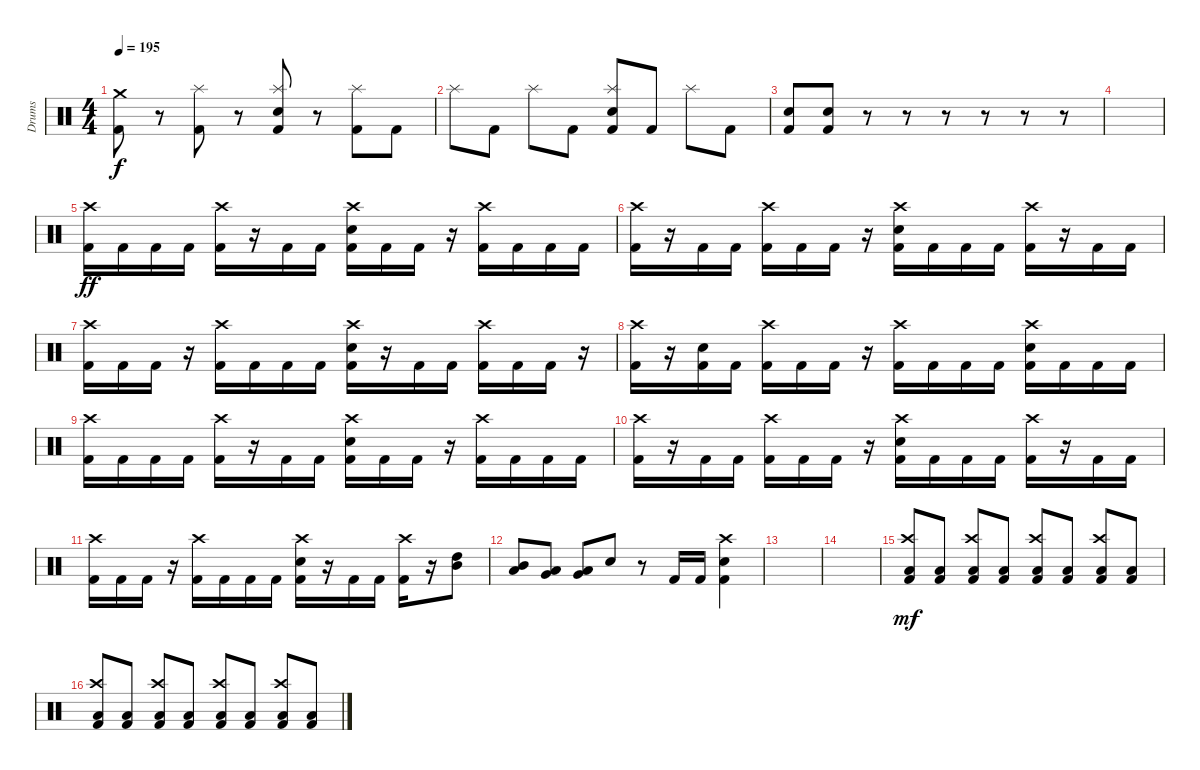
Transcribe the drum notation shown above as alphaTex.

\track ("Drums" "Drums") {instrument percussion}
\staff {score}
\articulation defaults
\ts (4 4)
\tempo 195
\clef neutral
\ks c
("Crash medium (hit)" "Kick (hit) 2").8{dy f} r.8 ("Splash (hit)" "Kick (hit) 2").8 r.8 ("Splash (hit)" "Electric Snare (hit)" "Kick (hit) 2").8 r.8 ("Splash (hit)" "Kick (hit) 2").8 "Kick (hit) 2".8 |
"Splash (hit)".8 "Kick (hit) 2".8 "Splash (hit)".8 "Kick (hit) 2".8 ("Splash (hit)" "Electric Snare (hit)" "Kick (hit) 2").8 "Kick (hit) 2".8 "Splash (hit)".8 "Kick (hit) 2".8 |
("Electric Snare (hit)" "Kick (hit) 2").8 ("Electric Snare (hit)" "Kick (hit) 2").8 r.8 r.8 r.8 r.8 r.8 r.8 |
|
("Crash high (hit)" "Kick (hit) 2").16{dy ff} "Kick (hit) 2".16 "Kick (hit) 2".16 "Kick (hit) 2".16 ("Crash high (hit)" "Kick (hit) 2").16 r.16 "Kick (hit) 2".16 "Kick (hit) 2".16 ("Crash high (hit)" "Electric Snare (hit)" "Kick (hit) 2").16 "Kick (hit) 2".16 "Kick (hit) 2".16 r.16 ("Crash high (hit)" "Kick (hit) 2").16 "Kick (hit) 2".16 "Kick (hit) 2".16 "Kick (hit) 2".16 |
("Crash high (hit)" "Kick (hit) 2").16 r.16 "Kick (hit) 2".16 "Kick (hit) 2".16 ("Crash high (hit)" "Kick (hit) 2").16 "Kick (hit) 2".16 "Kick (hit) 2".16 r.16 ("Crash high (hit)" "Electric Snare (hit)" "Kick (hit) 2").16 "Kick (hit) 2".16 "Kick (hit) 2".16 "Kick (hit) 2".16 ("Crash high (hit)" "Kick (hit) 2").16 r.16 "Kick (hit) 2".16 "Kick (hit) 2".16 |
("Crash high (hit)" "Kick (hit) 2").16 "Kick (hit) 2".16 "Kick (hit) 2".16 r.16 ("Crash high (hit)" "Kick (hit) 2").16 "Kick (hit) 2".16 "Kick (hit) 2".16 "Kick (hit) 2".16 ("Crash high (hit)" "Electric Snare (hit)" "Kick (hit) 2").16 r.16 "Kick (hit) 2".16 "Kick (hit) 2".16 ("Crash high (hit)" "Kick (hit) 2").16 "Kick (hit) 2".16 "Kick (hit) 2".16 r.16 |
("Crash high (hit)" "Kick (hit) 2").16 r.16 ("Electric Snare (hit)" "Kick (hit) 2").16 "Kick (hit) 2".16 ("Crash high (hit)" "Kick (hit) 2").16 "Kick (hit) 2".16 "Kick (hit) 2".16 r.16 ("Crash high (hit)" "Kick (hit) 2").16 "Kick (hit) 2".16 "Kick (hit) 2".16 "Kick (hit) 2".16 ("Crash high (hit)" "Electric Snare (hit)" "Kick (hit) 2").16 "Kick (hit) 2".16 "Kick (hit) 2".16 "Kick (hit) 2".16 |
("Crash high (hit)" "Kick (hit) 2").16 "Kick (hit) 2".16 "Kick (hit) 2".16 "Kick (hit) 2".16 ("Crash high (hit)" "Kick (hit) 2").16 r.16 "Kick (hit) 2".16 "Kick (hit) 2".16 ("Crash high (hit)" "Electric Snare (hit)" "Kick (hit) 2").16 "Kick (hit) 2".16 "Kick (hit) 2".16 r.16 ("Crash high (hit)" "Kick (hit) 2").16 "Kick (hit) 2".16 "Kick (hit) 2".16 "Kick (hit) 2".16 |
("Crash high (hit)" "Kick (hit) 2").16 r.16 "Kick (hit) 2".16 "Kick (hit) 2".16 ("Crash high (hit)" "Kick (hit) 2").16 "Kick (hit) 2".16 "Kick (hit) 2".16 r.16 ("Crash high (hit)" "Electric Snare (hit)" "Kick (hit) 2").16 "Kick (hit) 2".16 "Kick (hit) 2".16 "Kick (hit) 2".16 ("Crash high (hit)" "Kick (hit) 2").16 r.16 "Kick (hit) 2".16 "Kick (hit) 2".16 |
("Crash high (hit)" "Kick (hit) 2").16 "Kick (hit) 2".16 "Kick (hit) 2".16 r.16 ("Crash high (hit)" "Kick (hit) 2").16 "Kick (hit) 2".16 "Kick (hit) 2".16 "Kick (hit) 2".16 ("Crash high (hit)" "Electric Snare (hit)" "Kick (hit) 2").16 r.16 "Kick (hit) 2".16 "Kick (hit) 2".16 ("Crash high (hit)" "Kick (hit) 2").16 r.16 ("High Tom (hit)" "Mid Tom (hit)").8 |
("Mid Tom (hit)" "Low Tom (hit)").8 ("Low Tom (hit)" "Very Low Tom (hit)").8 ("Very Low Tom (hit)" "Low Floor Tom (hit)").8 "Electric Snare (hit)".8 r.8 "Kick (hit) 2".16 "Kick (hit) 2".16 ("Crash high (hit)" "Electric Snare (hit)" "Kick (hit) 2").4 |
|
|
("Crash high (hit)" "Low Floor Tom (hit)" "Kick (hit) 2").8{dy mf} ("Low Floor Tom (hit)" "Kick (hit) 2").8 ("Crash high (hit)" "Low Floor Tom (hit)" "Kick (hit) 2").8 ("Low Floor Tom (hit)" "Kick (hit) 2").8 ("Crash high (hit)" "Low Floor Tom (hit)" "Kick (hit) 2").8 ("Low Floor Tom (hit)" "Kick (hit) 2").8 ("Crash high (hit)" "Low Floor Tom (hit)" "Kick (hit) 2").8 ("Low Floor Tom (hit)" "Kick (hit) 2").8 |
("Crash high (hit)" "Low Floor Tom (hit)" "Kick (hit) 2").8 ("Low Floor Tom (hit)" "Kick (hit) 2").8 ("Crash high (hit)" "Low Floor Tom (hit)" "Kick (hit) 2").8 ("Low Floor Tom (hit)" "Kick (hit) 2").8 ("Crash high (hit)" "Low Floor Tom (hit)" "Kick (hit) 2").8 ("Low Floor Tom (hit)" "Kick (hit) 2").8 ("Crash high (hit)" "Low Floor Tom (hit)" "Kick (hit) 2").8 ("Low Floor Tom (hit)" "Kick (hit) 2").8
